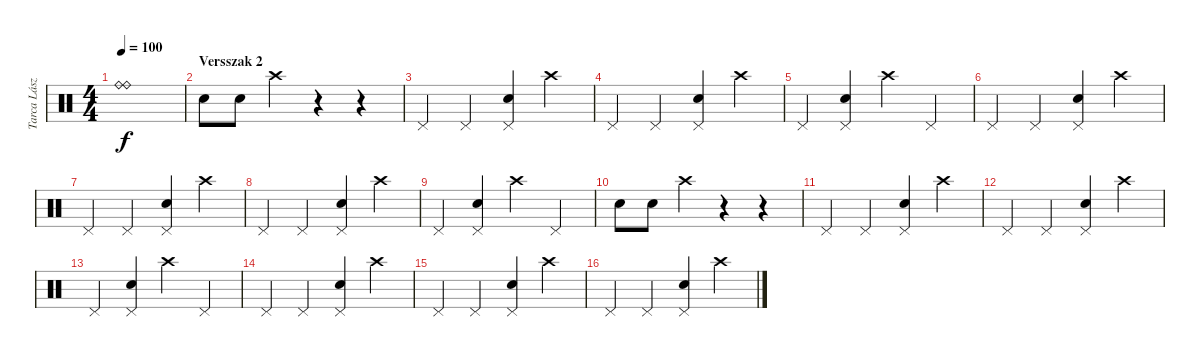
\track ("Tarca László" "Tarca Lász") {instrument percussion}
\staff {score}
\articulation defaults
\ts (4 4)
\tempo 100
\clef neutral
\ks c
("Ride (bell)" "Ride (bell)").1{dy f} |
\section ("" "Versszak 2")
"Snare (hit) 2".8 "Snare (hit) 2".8 "Crash high (hit)".4 r.4 r.4 |
"Pedal Hi-Hat (hit)".4 "Pedal Hi-Hat (hit)".4 ("Snare (hit) 2" "Pedal Hi-Hat (hit)").4 "Crash high (hit)".4 |
"Pedal Hi-Hat (hit)".4 "Pedal Hi-Hat (hit)".4 ("Snare (hit) 2" "Pedal Hi-Hat (hit)").4 "Crash high (hit)".4 |
"Pedal Hi-Hat (hit)".4 ("Snare (hit) 2" "Pedal Hi-Hat (hit)").4 "Crash high (hit)".4 "Pedal Hi-Hat (hit)".4 |
"Pedal Hi-Hat (hit)".4 "Pedal Hi-Hat (hit)".4 ("Snare (hit) 2" "Pedal Hi-Hat (hit)").4 "Crash high (hit)".4 |
"Pedal Hi-Hat (hit)".4 "Pedal Hi-Hat (hit)".4 ("Snare (hit) 2" "Pedal Hi-Hat (hit)").4 "Crash high (hit)".4 |
"Pedal Hi-Hat (hit)".4 "Pedal Hi-Hat (hit)".4 ("Snare (hit) 2" "Pedal Hi-Hat (hit)").4 "Crash high (hit)".4 |
"Pedal Hi-Hat (hit)".4 ("Snare (hit) 2" "Pedal Hi-Hat (hit)").4 "Crash high (hit)".4 "Pedal Hi-Hat (hit)".4 |
"Snare (hit) 2".8 "Snare (hit) 2".8 "Crash high (hit)".4 r.4 r.4 |
"Pedal Hi-Hat (hit)".4 "Pedal Hi-Hat (hit)".4 ("Snare (hit) 2" "Pedal Hi-Hat (hit)").4 "Crash high (hit)".4 |
"Pedal Hi-Hat (hit)".4 "Pedal Hi-Hat (hit)".4 ("Snare (hit) 2" "Pedal Hi-Hat (hit)").4 "Crash high (hit)".4 |
"Pedal Hi-Hat (hit)".4 ("Snare (hit) 2" "Pedal Hi-Hat (hit)").4 "Crash high (hit)".4 "Pedal Hi-Hat (hit)".4 |
"Pedal Hi-Hat (hit)".4 "Pedal Hi-Hat (hit)".4 ("Snare (hit) 2" "Pedal Hi-Hat (hit)").4 "Crash high (hit)".4 |
"Pedal Hi-Hat (hit)".4 "Pedal Hi-Hat (hit)".4 ("Snare (hit) 2" "Pedal Hi-Hat (hit)").4 "Crash high (hit)".4 |
"Pedal Hi-Hat (hit)".4 "Pedal Hi-Hat (hit)".4 ("Snare (hit) 2" "Pedal Hi-Hat (hit)").4 "Crash high (hit)".4
